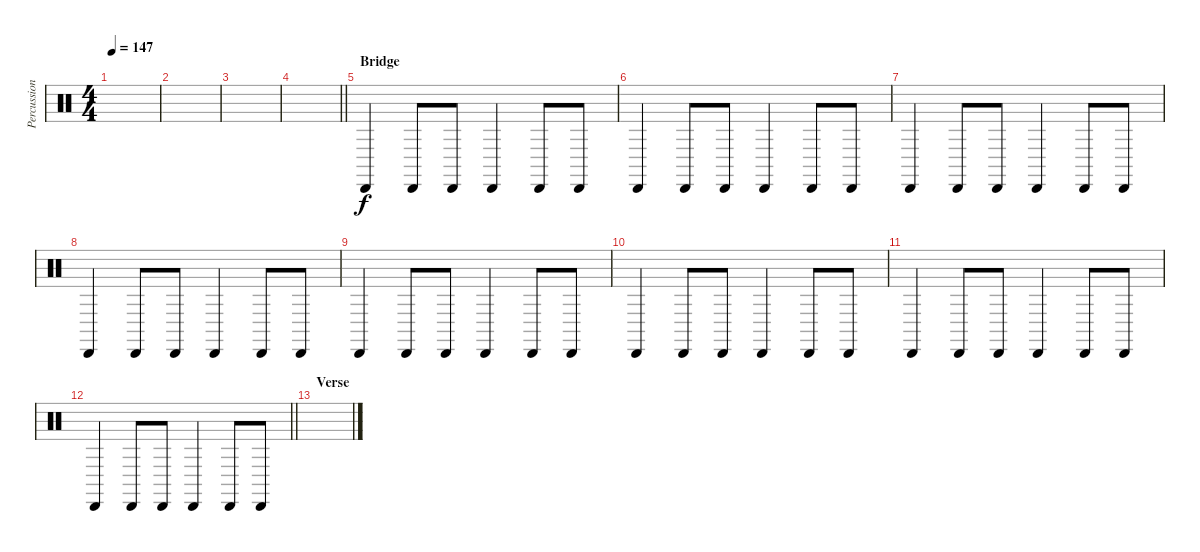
\track ("Percussion (Matt Laug)" "Percussion") {instrument percussion}
\staff {score}
\articulation defaults
\ts (4 4)
\tempo 147
\clef neutral
\ks c
|
|
|
\barLineRight lightlight
|
\section ("" "Bridge")
"Cabasa (hit)".4 "Cabasa (hit)".8 "Cabasa (hit)".8 "Cabasa (hit)".4 "Cabasa (hit)".8 "Cabasa (hit)".8 |
"Cabasa (hit)".4 "Cabasa (hit)".8 "Cabasa (hit)".8 "Cabasa (hit)".4 "Cabasa (hit)".8 "Cabasa (hit)".8 |
"Cabasa (hit)".4 "Cabasa (hit)".8 "Cabasa (hit)".8 "Cabasa (hit)".4 "Cabasa (hit)".8 "Cabasa (hit)".8 |
"Cabasa (hit)".4 "Cabasa (hit)".8 "Cabasa (hit)".8 "Cabasa (hit)".4 "Cabasa (hit)".8 "Cabasa (hit)".8 |
"Cabasa (hit)".4 "Cabasa (hit)".8 "Cabasa (hit)".8 "Cabasa (hit)".4 "Cabasa (hit)".8 "Cabasa (hit)".8 |
"Cabasa (hit)".4 "Cabasa (hit)".8 "Cabasa (hit)".8 "Cabasa (hit)".4 "Cabasa (hit)".8 "Cabasa (hit)".8 |
"Cabasa (hit)".4 "Cabasa (hit)".8 "Cabasa (hit)".8 "Cabasa (hit)".4 "Cabasa (hit)".8 "Cabasa (hit)".8 |
\barLineRight lightlight "Cabasa (hit)".4 "Cabasa (hit)".8 "Cabasa (hit)".8 "Cabasa (hit)".4 "Cabasa (hit)".8 "Cabasa (hit)".8
|
\section ("" "Verse")
